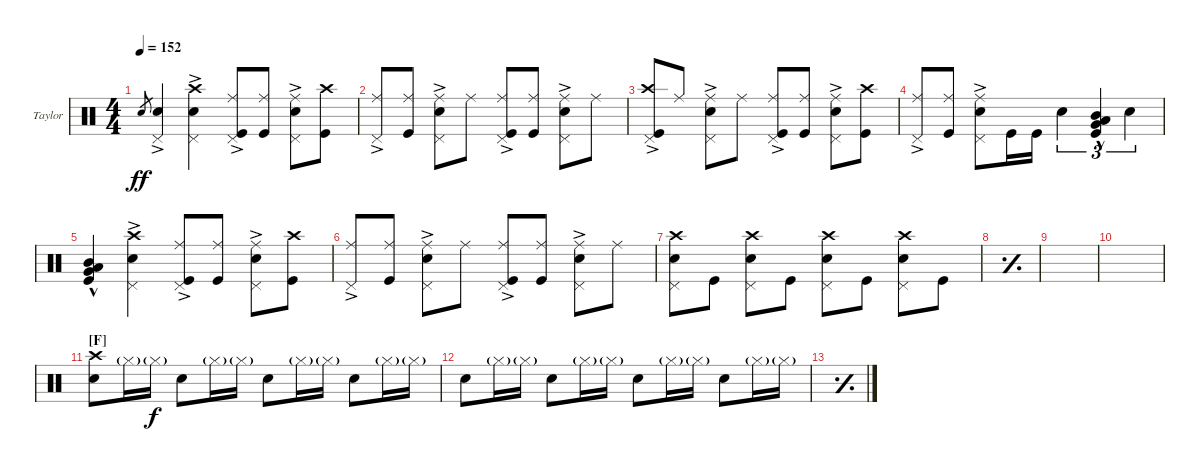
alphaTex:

\defaultSystemsLayout 4
\bracketExtendMode nobrackets
\firstSystemTrackNameOrientation horizontal
\otherSystemsTrackNameOrientation horizontal
\track ("Drums (Taylor Hawkins)" "Taylor") {instrument percussion}
\staff {score}
\articulation defaults
\ts (4 4)
\tempo 152
\clef neutral
\ks c "Snare (hit) 2".8{gr dy ff}
("Snare (hit) 2" "Pedal Hi-Hat (hit)"{ac}).4 ("Snare (hit) 2" "Crash high (hit)" "Pedal Hi-Hat (hit)"{ac}).4 ("Ride (middle)" "Kick (hit)" "Pedal Hi-Hat (hit)"{ac}).8 ("Ride (middle)" "Kick (hit)").8 ("Ride (middle)" "Snare (hit) 2" "Pedal Hi-Hat (hit)"{ac}).8 ("Crash high (hit)" "Kick (hit)").8 |
("Ride (middle)" "Pedal Hi-Hat (hit)"{ac}).8 ("Ride (middle)" "Kick (hit)").8 ("Ride (middle)" "Snare (hit) 2" "Pedal Hi-Hat (hit)"{ac}).8 "Ride (middle)".8 ("Ride (middle)" "Kick (hit)" "Pedal Hi-Hat (hit)"{ac}).8 ("Ride (middle)" "Kick (hit)").8 ("Ride (middle)" "Snare (hit) 2" "Pedal Hi-Hat (hit)"{ac}).8 "Ride (middle)".8 |
("Kick (hit)" "Pedal Hi-Hat (hit)"{ac} "Crash high (hit)").8 "Ride (middle)".8 ("Snare (hit) 2" "Ride (middle)" "Pedal Hi-Hat (hit)"{ac}).8 "Ride (middle)".8 ("Ride (middle)" "Kick (hit)" "Pedal Hi-Hat (hit)"{ac}).8 ("Ride (middle)" "Kick (hit)").8 ("Ride (middle)" "Snare (hit) 2" "Pedal Hi-Hat (hit)"{ac}).8 ("Crash high (hit)" "Kick (hit)").8 |
("Ride (middle)" "Pedal Hi-Hat (hit)"{ac}).8 ("Kick (hit)" "Ride (middle)").8 ("Snare (hit) 2" "Ride (middle)" "Pedal Hi-Hat (hit)"{ac}).8 "Kick (hit)".16 "Kick (hit)".16 "Snare (hit) 2".4{tu (3 2)} ("Mid Tom (hit)" "Very Low Tom (hit)" "Kick (hit)"{hac} "Low Tom (hit)").4{tu (3 2)} "Snare (hit) 2".4{tu (3 2)} |
("Mid Tom (hit)" "Very Low Tom (hit)" "Kick (hit)"{hac} "Low Tom (hit)").4 ("Snare (hit) 2" "Crash high (hit)" "Pedal Hi-Hat (hit)"{ac}).4 ("Ride (middle)" "Kick (hit)" "Pedal Hi-Hat (hit)"{ac}).8 ("Ride (middle)" "Kick (hit)").8 ("Ride (middle)" "Snare (hit) 2" "Pedal Hi-Hat (hit)"{ac}).8 ("Crash high (hit)" "Kick (hit)").8 |
("Ride (middle)" "Pedal Hi-Hat (hit)"{ac}).8 ("Ride (middle)" "Kick (hit)").8 ("Ride (middle)" "Snare (hit) 2" "Pedal Hi-Hat (hit)"{ac}).8 "Ride (middle)".8 ("Ride (middle)" "Kick (hit)" "Pedal Hi-Hat (hit)"{ac}).8 ("Ride (middle)" "Kick (hit)").8 ("Ride (middle)" "Snare (hit) 2" "Pedal Hi-Hat (hit)"{ac}).8 "Ride (middle)".8 |
("Crash high (hit)" "Snare (hit) 2" "Pedal Hi-Hat (hit)").8 "Kick (hit)".8 ("Crash high (hit)" "Snare (hit) 2" "Pedal Hi-Hat (hit)").8 "Kick (hit)".8 ("Crash high (hit)" "Snare (hit) 2" "Pedal Hi-Hat (hit)").8 "Kick (hit)".8 ("Crash high (hit)" "Snare (hit) 2" "Pedal Hi-Hat (hit)").8 "Kick (hit)".8 |
\simile simple
|
|
|
\section ("F" "")
\simile none
("Crash high (hit)" "Snare (hit) 2").8 "Hi-Hat (closed)"{g}.16 "Hi-Hat (closed)"{g}.16{dy f} "Snare (hit) 2".8 "Hi-Hat (closed)"{g}.16 "Hi-Hat (closed)"{g}.16 "Snare (hit) 2".8 "Hi-Hat (closed)"{g}.16 "Hi-Hat (closed)"{g}.16 "Snare (hit) 2".8 "Hi-Hat (closed)"{g}.16 "Hi-Hat (closed)"{g}.16 |
"Snare (hit) 2".8 "Hi-Hat (closed)"{g}.16 "Hi-Hat (closed)"{g}.16 "Snare (hit) 2".8 "Hi-Hat (closed)"{g}.16 "Hi-Hat (closed)"{g}.16 "Snare (hit) 2".8 "Hi-Hat (closed)"{g}.16 "Hi-Hat (closed)"{g}.16 "Snare (hit) 2".8 "Hi-Hat (closed)"{g}.16 "Hi-Hat (closed)"{g}.16 |
\simile simple
